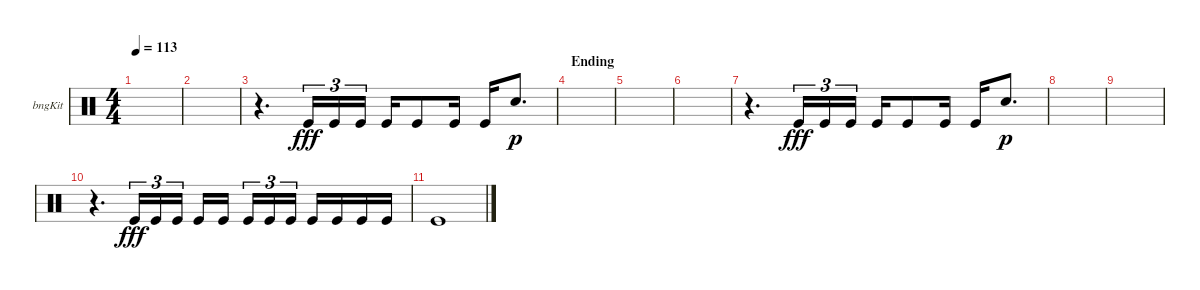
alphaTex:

\defaultSystemsLayout 4
\bracketExtendMode groupsimilarinstruments
\firstSystemTrackNameOrientation horizontal
\otherSystemsTrackNameOrientation horizontal
\track ("Bongos" "bngKit") {instrument percussion}
\staff {score}
\articulation defaults
\ts (4 4)
\tempo 113
\clef neutral
\ks c
|
|
r.4{d} "Kick (hit)".16{tu (3 2) dy fff} "Kick (hit)".16{tu (3 2)} "Kick (hit)".16{tu (3 2)} "Kick (hit)".16 "Kick (hit)".8 "Kick (hit)".16 "Kick (hit)".16 "Snare (hit) 2".8{d dy p} |
\section ("" "Ending")
|
|
|
r.4{d} "Kick (hit)".16{tu (3 2) dy fff} "Kick (hit)".16{tu (3 2)} "Kick (hit)".16{tu (3 2)} "Kick (hit)".16 "Kick (hit)".8 "Kick (hit)".16 "Kick (hit)".16 "Snare (hit) 2".8{d dy p} |
|
|
r.4{d} "Kick (hit)".16{tu (3 2) dy fff} "Kick (hit)".16{tu (3 2)} "Kick (hit)".16{tu (3 2)} "Kick (hit)".16 "Kick (hit)".16 "Kick (hit)".16{tu (3 2)} "Kick (hit)".16{tu (3 2)} "Kick (hit)".16{tu (3 2)} "Kick (hit)".16 "Kick (hit)".16 "Kick (hit)".16 "Kick (hit)".16 |
"Kick (hit)".1
